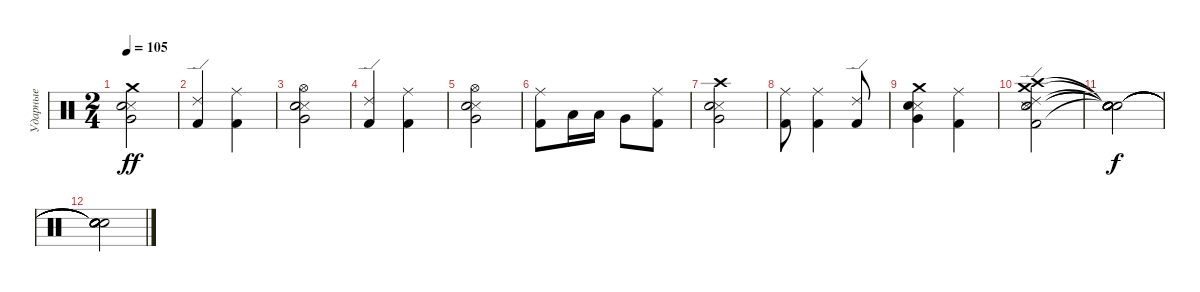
\track ("Ударные" "Ударные") {instrument percussion}
\staff {score}
\articulation defaults
\ts (2 4)
\tempo 105
\clef neutral
\ks c
("Crash medium (hit)" "Metronome (hit)" "Very Low Tom (hit)" "Snare (hit) 2").2{dy ff} |
("Ride (edge) 2" "Kick (hit) 2").4 ("Ride (middle)" "Kick (hit) 2").4 |
("Hi-Hat (open)" "Metronome (hit)" "Very Low Tom (hit)" "Snare (hit) 2").2 |
("Ride (edge) 2" "Kick (hit) 2").4 ("Ride (middle)" "Kick (hit) 2").4 |
("Hi-Hat (open)" "Metronome (hit)" "Very Low Tom (hit)" "Snare (hit) 2").2 |
("Ride (middle)" "Kick (hit) 2").8 "Low Tom (hit)".16 "Low Tom (hit)".16 "Very Low Tom (hit)".8 ("Ride (middle)" "Kick (hit) 2").8 |
("Crash high (hit)" "Metronome (hit)" "Very Low Tom (hit)" "Snare (hit) 2").2 |
("Ride (middle)" "Kick (hit) 2").8 ("Ride (middle)" "Kick (hit) 2").4 ("Ride (edge) 2" "Kick (hit) 2").8 |
("Crash medium (hit)" "Metronome (hit)" "Very Low Tom (hit)" "Snare (hit) 2").4 ("Ride (middle)" "Kick (hit) 2").4 |
("Ride (edge) 2" "Metronome (hit)" "Crash high (hit)" "Snare (hit) 2" "Kick (hit) 2" "Crash medium (hit)").2 |
("Snare (hit)"{t} "Snare (hit)"{t} "Snare (hit)"{t} "Snare (hit)"{t} "Snare (hit)"{t} "Snare (hit)"{t}).2{dy f} |
("Snare (hit)"{t} "Snare (hit)"{t} "Snare (hit)"{t} "Snare (hit)"{t} "Snare (hit)"{t} "Snare (hit)"{t}).2
